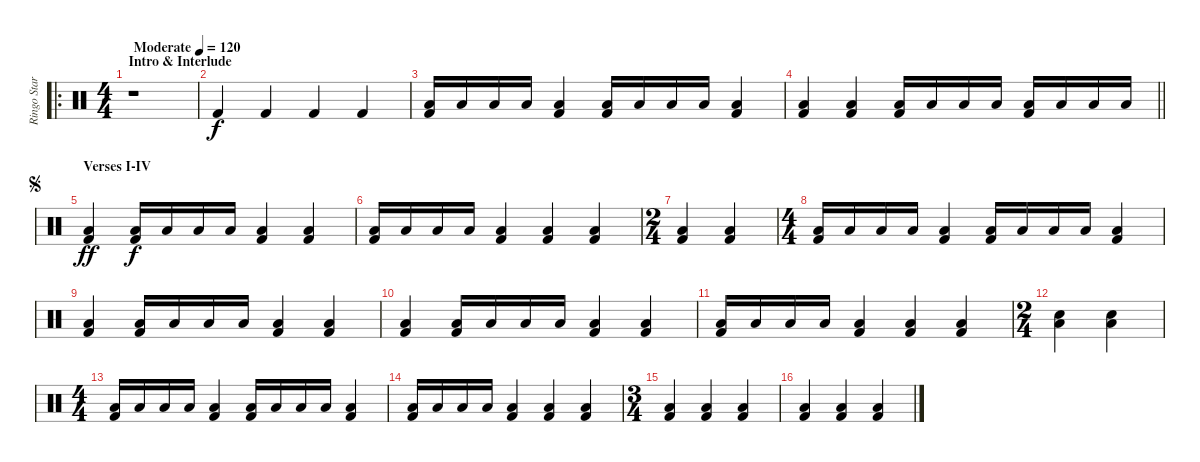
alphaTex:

\track ("Ringo Star's drums" "Ringo Star") {instrument percussion}
\staff {score}
\articulation defaults
\ro
\ts (4 4)
\section ("" "Intro & Interlude")
\tempo (120 "Moderate")
\clef neutral
\ks c
r.1{dy f} |
"Kick (hit) 2".4 "Kick (hit) 2".4 "Kick (hit) 2".4 "Kick (hit) 2".4 |
("Low Floor Tom (hit)" "Kick (hit) 2").16 "Low Floor Tom (hit)".16 "Low Floor Tom (hit)".16 "Low Floor Tom (hit)".16 ("Low Floor Tom (hit)" "Kick (hit) 2").4 ("Low Floor Tom (hit)" "Kick (hit) 2").16 "Low Floor Tom (hit)".16 "Low Floor Tom (hit)".16 "Low Floor Tom (hit)".16 ("Low Floor Tom (hit)" "Kick (hit) 2").4 |
\barLineRight lightlight
("Low Floor Tom (hit)" "Kick (hit) 2").4 ("Low Floor Tom (hit)" "Kick (hit) 2").4 ("Low Floor Tom (hit)" "Kick (hit) 2").16 "Low Floor Tom (hit)".16 "Low Floor Tom (hit)".16 "Low Floor Tom (hit)".16 ("Low Floor Tom (hit)" "Kick (hit) 2").16 "Low Floor Tom (hit)".16 "Low Floor Tom (hit)".16 "Low Floor Tom (hit)".16 |
\section ("" "Verses I-IV")
\jump segno
("Low Floor Tom (hit)" "Kick (hit) 2").4{dy ff} ("Low Floor Tom (hit)" "Kick (hit) 2").16{dy f} "Low Floor Tom (hit)".16 "Low Floor Tom (hit)".16 "Low Floor Tom (hit)".16 ("Low Floor Tom (hit)" "Kick (hit) 2").4 ("Low Floor Tom (hit)" "Kick (hit) 2").4 |
("Low Floor Tom (hit)" "Kick (hit) 2").16 "Low Floor Tom (hit)".16 "Low Floor Tom (hit)".16 "Low Floor Tom (hit)".16 ("Low Floor Tom (hit)" "Kick (hit) 2").4 ("Low Floor Tom (hit)" "Kick (hit) 2").4 ("Low Floor Tom (hit)" "Kick (hit) 2").4 |
\ts (2 4)
("Low Floor Tom (hit)" "Kick (hit) 2").4 ("Low Floor Tom (hit)" "Kick (hit) 2").4 |
\ts (4 4)
("Low Floor Tom (hit)" "Kick (hit) 2").16 "Low Floor Tom (hit)".16 "Low Floor Tom (hit)".16 "Low Floor Tom (hit)".16 ("Low Floor Tom (hit)" "Kick (hit) 2").4 ("Low Floor Tom (hit)" "Kick (hit) 2").16 "Low Floor Tom (hit)".16 "Low Floor Tom (hit)".16 "Low Floor Tom (hit)".16 ("Low Floor Tom (hit)" "Kick (hit) 2").4 |
("Low Floor Tom (hit)" "Kick (hit) 2").4 ("Low Floor Tom (hit)" "Kick (hit) 2").16 "Low Floor Tom (hit)".16 "Low Floor Tom (hit)".16 "Low Floor Tom (hit)".16 ("Low Floor Tom (hit)" "Kick (hit) 2").4 ("Low Floor Tom (hit)" "Kick (hit) 2").4 |
("Low Floor Tom (hit)" "Kick (hit) 2").4 ("Low Floor Tom (hit)" "Kick (hit) 2").16 "Low Floor Tom (hit)".16 "Low Floor Tom (hit)".16 "Low Floor Tom (hit)".16 ("Low Floor Tom (hit)" "Kick (hit) 2").4 ("Low Floor Tom (hit)" "Kick (hit) 2").4 |
("Low Floor Tom (hit)" "Kick (hit) 2").16 "Low Floor Tom (hit)".16 "Low Floor Tom (hit)".16 "Low Floor Tom (hit)".16 ("Low Floor Tom (hit)" "Kick (hit) 2").4 ("Low Floor Tom (hit)" "Kick (hit) 2").4 ("Low Floor Tom (hit)" "Kick (hit) 2").4 |
\ts (2 4)
("Low Floor Tom (hit)" "Snare (hit)").4 ("Low Floor Tom (hit)" "Snare (hit)").4 |
\ts (4 4)
("Low Floor Tom (hit)" "Kick (hit) 2").16 "Low Floor Tom (hit)".16 "Low Floor Tom (hit)".16 "Low Floor Tom (hit)".16 ("Low Floor Tom (hit)" "Kick (hit) 2").4 ("Low Floor Tom (hit)" "Kick (hit) 2").16 "Low Floor Tom (hit)".16 "Low Floor Tom (hit)".16 "Low Floor Tom (hit)".16 ("Low Floor Tom (hit)" "Kick (hit) 2").4 |
("Low Floor Tom (hit)" "Kick (hit) 2").16 "Low Floor Tom (hit)".16 "Low Floor Tom (hit)".16 "Low Floor Tom (hit)".16 ("Low Floor Tom (hit)" "Kick (hit) 2").4 ("Low Floor Tom (hit)" "Kick (hit) 2").4 ("Low Floor Tom (hit)" "Kick (hit) 2").4 |
\ts (3 4)
("Low Floor Tom (hit)" "Kick (hit) 2").4 ("Low Floor Tom (hit)" "Kick (hit) 2").4 ("Low Floor Tom (hit)" "Kick (hit) 2").4 |
("Low Floor Tom (hit)" "Kick (hit) 2").4 ("Low Floor Tom (hit)" "Kick (hit) 2").4 ("Low Floor Tom (hit)" "Kick (hit) 2").4
